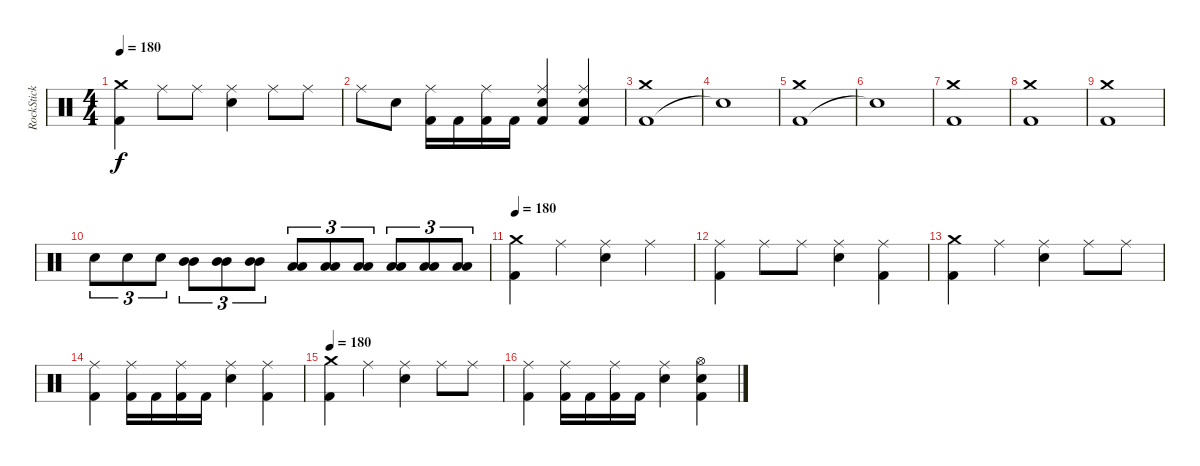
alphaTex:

\track ("RockStick" "RockStick") {instrument percussion}
\staff {score}
\articulation defaults
\ts (4 4)
\tempo 180
\clef neutral
\ks c
("Kick (hit) 2" "Crash medium (hit)").4{dy f} "Ride (middle)".8 "Ride (middle)".8 ("Electric Snare (hit)" "Ride (middle)").4 "Ride (middle)".8 "Ride (middle)".8 |
"Ride (middle)".8 "Electric Snare (hit)".8 ("Kick (hit) 2" "Ride (middle)").16 "Kick (hit) 2".16 ("Kick (hit) 2" "Ride (middle)").16 "Kick (hit) 2".16 ("Kick (hit) 2" "Ride (middle)" "Electric Snare (hit)").4 ("Kick (hit) 2" "Ride (middle)" "Electric Snare (hit)").4 |
("Kick (hit) 2" "Crash medium (hit)").1 |
"Snare (hit)"{t}.1 |
("Kick (hit) 2" "Crash medium (hit)").1 |
"Snare (hit)"{t}.1 |
("Kick (hit) 2" "Crash medium (hit)").1 |
("Kick (hit) 2" "Crash medium (hit)").1 |
("Kick (hit) 2" "Crash medium (hit)").1 |
"Electric Snare (hit)".8{tu (3 2)} "Electric Snare (hit)".8{tu (3 2)} "Electric Snare (hit)".8{tu (3 2)} ("Mid Tom (hit)" "Mid Tom (hit)").8{tu (3 2)} ("Mid Tom (hit)" "Mid Tom (hit)").8{tu (3 2)} ("Mid Tom (hit)" "Mid Tom (hit)").8{tu (3 2)} ("Low Tom (hit)" "Low Tom (hit)").8{tu (3 2)} ("Low Tom (hit)" "Low Tom (hit)").8{tu (3 2)} ("Low Tom (hit)" "Low Tom (hit)").8{tu (3 2)} ("Low Floor Tom (hit)" "Low Floor Tom (hit)").8{tu (3 2)} ("Low Floor Tom (hit)" "Low Floor Tom (hit)").8{tu (3 2)} ("Low Floor Tom (hit)" "Low Floor Tom (hit)").8{tu (3 2)} |
\tempo 180
("Kick (hit) 2" "Crash medium (hit)").4 "Ride (middle)".4 ("Electric Snare (hit)" "Ride (middle)").4 "Ride (middle)".4 |
("Kick (hit) 2" "Ride (middle)").4 "Ride (middle)".8 "Ride (middle)".8 ("Electric Snare (hit)" "Ride (middle)").4 ("Kick (hit) 2" "Ride (middle)").4 |
("Kick (hit) 2" "Crash medium (hit)").4 "Ride (middle)".4 ("Electric Snare (hit)" "Ride (middle)").4 "Ride (middle)".8 "Ride (middle)".8 |
("Kick (hit) 2" "Ride (middle)").4 ("Kick (hit) 2" "Ride (middle)").16 "Kick (hit) 2".16 ("Kick (hit) 2" "Ride (middle)").16 "Kick (hit) 2".16 ("Electric Snare (hit)" "Ride (middle)").4 ("Kick (hit) 2" "Ride (middle)").4 |
\tempo 180
("Kick (hit) 2" "Crash medium (hit)").4 "Ride (middle)".4 ("Electric Snare (hit)" "Ride (middle)").4 "Ride (middle)".8 "Ride (middle)".8 |
("Kick (hit) 2" "Ride (middle)").4 ("Kick (hit) 2" "Ride (middle)").16 "Kick (hit) 2".16 ("Kick (hit) 2" "Ride (middle)").16 "Kick (hit) 2".16 ("Electric Snare (hit)" "Ride (middle)").4 ("Kick (hit) 2" "Electric Snare (hit)" "Hi-Hat (open)").4
